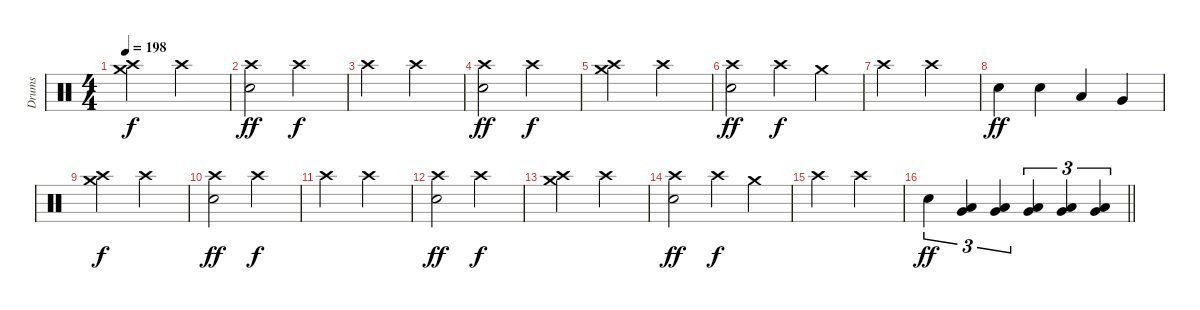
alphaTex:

\track ("Drums" "Drums") {instrument percussion}
\staff {score}
\articulation defaults
\ts (4 4)
\section ("" "")
\tempo 198
\clef neutral
\ks c
("Crash high (hit)" "Crash medium (hit)").2{dy f} "Crash high (hit)".2 |
("Crash high (hit)" "Snare (hit) 2").2{dy ff} "Crash high (hit)".2{dy f} |
"Crash high (hit)".2 "Crash high (hit)".2 |
("Crash high (hit)" "Snare (hit) 2").2{dy ff} "Crash high (hit)".2{dy f} |
("Crash high (hit)" "Crash medium (hit)").2 "Crash high (hit)".2 |
("Crash high (hit)" "Snare (hit) 2").2{dy ff} "Crash high (hit)".4{dy f} "Crash medium (hit)".4 |
"Crash high (hit)".2 "Crash high (hit)".2 |
"Snare (hit) 2".4{dy ff} "Snare (hit) 2".4 "Low Tom (hit)".4 "Very Low Tom (hit)".4 |
("Crash high (hit)" "Crash medium (hit)").2{dy f} "Crash high (hit)".2 |
("Crash high (hit)" "Snare (hit) 2").2{dy ff} "Crash high (hit)".2{dy f} |
"Crash high (hit)".2 "Crash high (hit)".2 |
("Crash high (hit)" "Snare (hit) 2").2{dy ff} "Crash high (hit)".2{dy f} |
("Crash high (hit)" "Crash medium (hit)").2 "Crash high (hit)".2 |
("Crash high (hit)" "Snare (hit) 2").2{dy ff} "Crash high (hit)".4{dy f} "Crash medium (hit)".4 |
"Crash high (hit)".2 "Crash high (hit)".2 |
\barLineRight lightlight "Snare (hit) 2".4{tu (3 2) dy ff}
("Low Tom (hit)" "Very Low Tom (hit)").4{tu (3 2)} ("Low Tom (hit)" "Very Low Tom (hit)").4{tu (3 2)} ("Very Low Tom (hit)" "Low Floor Tom (hit)").4{tu (3 2)} ("Very Low Tom (hit)" "Low Floor Tom (hit)").4{tu (3 2)} ("Very Low Tom (hit)" "Low Floor Tom (hit)").4{tu (3 2)}
